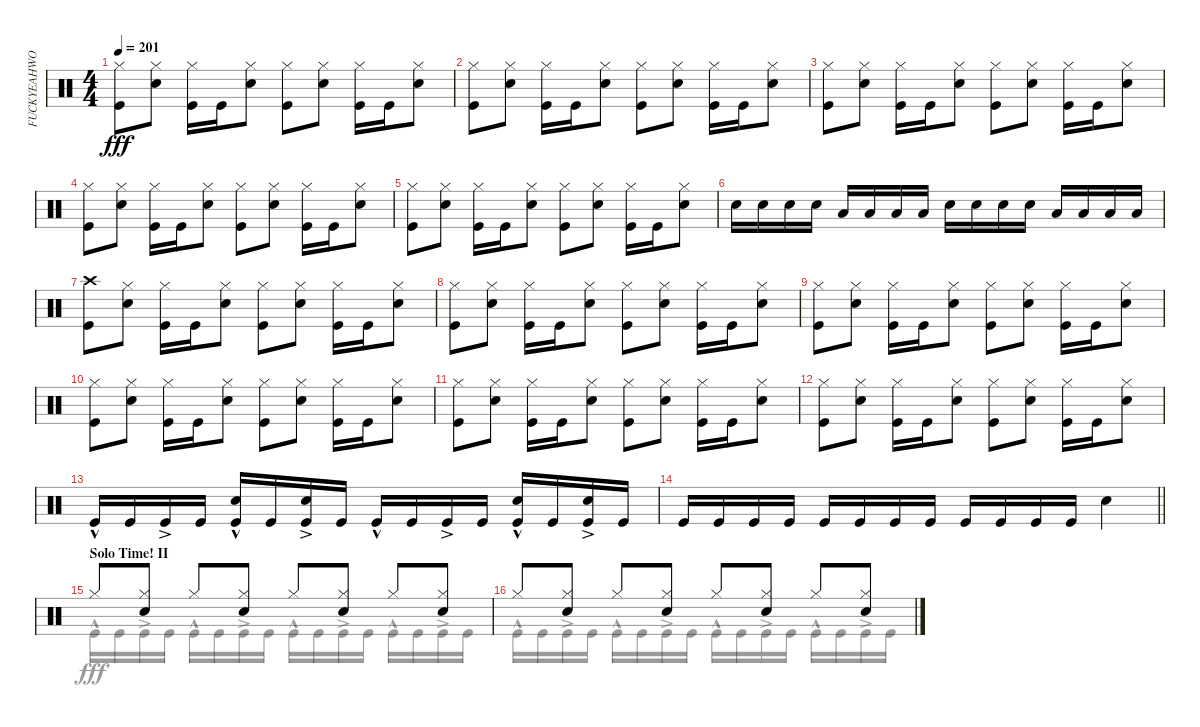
\track ("FUCKYEAHWOOTDAVEMACKINTOSH(Percussion)" "FUCKYEAHWO") {instrument percussion}
\staff {score}
\articulation defaults
\voice
\ts (4 4)
\tempo 201
\clef neutral
\ks c
("Kick (hit)" "Hi-Hat (closed)").8{dy fff} ("Snare (hit) 2" "Hi-Hat (closed)").8 ("Kick (hit)" "Hi-Hat (closed)").16 "Kick (hit)".16 ("Snare (hit) 2" "Hi-Hat (closed)").8 ("Kick (hit)" "Hi-Hat (closed)").8 ("Snare (hit) 2" "Hi-Hat (closed)").8 ("Kick (hit)" "Hi-Hat (closed)").16 "Kick (hit)".16 ("Snare (hit) 2" "Hi-Hat (closed)").8 |
("Kick (hit)" "Hi-Hat (closed)").8 ("Snare (hit) 2" "Hi-Hat (closed)").8 ("Kick (hit)" "Hi-Hat (closed)").16 "Kick (hit)".16 ("Snare (hit) 2" "Hi-Hat (closed)").8 ("Kick (hit)" "Hi-Hat (closed)").8 ("Snare (hit) 2" "Hi-Hat (closed)").8 ("Kick (hit)" "Hi-Hat (closed)").16 "Kick (hit)".16 ("Snare (hit) 2" "Hi-Hat (closed)").8 |
("Kick (hit)" "Hi-Hat (closed)").8 ("Snare (hit) 2" "Hi-Hat (closed)").8 ("Kick (hit)" "Hi-Hat (closed)").16 "Kick (hit)".16 ("Snare (hit) 2" "Hi-Hat (closed)").8 ("Kick (hit)" "Hi-Hat (closed)").8 ("Snare (hit) 2" "Hi-Hat (closed)").8 ("Kick (hit)" "Hi-Hat (closed)").16 "Kick (hit)".16 ("Snare (hit) 2" "Hi-Hat (closed)").8 |
("Kick (hit)" "Hi-Hat (closed)").8 ("Snare (hit) 2" "Hi-Hat (closed)").8 ("Kick (hit)" "Hi-Hat (closed)").16 "Kick (hit)".16 ("Snare (hit) 2" "Hi-Hat (closed)").8 ("Kick (hit)" "Hi-Hat (closed)").8 ("Snare (hit) 2" "Hi-Hat (closed)").8 ("Kick (hit)" "Hi-Hat (closed)").16 "Kick (hit)".16 ("Snare (hit) 2" "Hi-Hat (closed)").8 |
("Kick (hit)" "Hi-Hat (closed)").8 ("Snare (hit) 2" "Hi-Hat (closed)").8 ("Kick (hit)" "Hi-Hat (closed)").16 "Kick (hit)".16 ("Snare (hit) 2" "Hi-Hat (closed)").8 ("Kick (hit)" "Hi-Hat (closed)").8 ("Snare (hit) 2" "Hi-Hat (closed)").8 ("Kick (hit)" "Hi-Hat (closed)").16 "Kick (hit)".16 ("Snare (hit) 2" "Hi-Hat (closed)").8 |
"Snare (hit) 2".16 "Snare (hit) 2".16 "Snare (hit) 2".16 "Snare (hit) 2".16 "Low Tom (hit)".16 "Low Tom (hit)".16 "Low Tom (hit)".16 "Low Tom (hit)".16 "Snare (hit) 2".16 "Snare (hit) 2".16 "Snare (hit) 2".16 "Snare (hit) 2".16 "Low Tom (hit)".16 "Low Tom (hit)".16 "Low Tom (hit)".16 "Low Tom (hit)".16 |
("Kick (hit)" "Crash high (hit)").8 ("Snare (hit) 2" "Hi-Hat (closed)").8 ("Kick (hit)" "Hi-Hat (closed)").16 "Kick (hit)".16 ("Snare (hit) 2" "Hi-Hat (closed)").8 ("Kick (hit)" "Hi-Hat (closed)").8 ("Snare (hit) 2" "Hi-Hat (closed)").8 ("Kick (hit)" "Hi-Hat (closed)").16 "Kick (hit)".16 ("Snare (hit) 2" "Hi-Hat (closed)").8 |
("Kick (hit)" "Hi-Hat (closed)").8 ("Snare (hit) 2" "Hi-Hat (closed)").8 ("Kick (hit)" "Hi-Hat (closed)").16 "Kick (hit)".16 ("Snare (hit) 2" "Hi-Hat (closed)").8 ("Kick (hit)" "Hi-Hat (closed)").8 ("Snare (hit) 2" "Hi-Hat (closed)").8 ("Kick (hit)" "Hi-Hat (closed)").16 "Kick (hit)".16 ("Snare (hit) 2" "Hi-Hat (closed)").8 |
("Kick (hit)" "Hi-Hat (closed)").8 ("Snare (hit) 2" "Hi-Hat (closed)").8 ("Kick (hit)" "Hi-Hat (closed)").16 "Kick (hit)".16 ("Snare (hit) 2" "Hi-Hat (closed)").8 ("Kick (hit)" "Hi-Hat (closed)").8 ("Snare (hit) 2" "Hi-Hat (closed)").8 ("Kick (hit)" "Hi-Hat (closed)").16 "Kick (hit)".16 ("Snare (hit) 2" "Hi-Hat (closed)").8 |
("Kick (hit)" "Hi-Hat (closed)").8 ("Snare (hit) 2" "Hi-Hat (closed)").8 ("Kick (hit)" "Hi-Hat (closed)").16 "Kick (hit)".16 ("Snare (hit) 2" "Hi-Hat (closed)").8 ("Kick (hit)" "Hi-Hat (closed)").8 ("Snare (hit) 2" "Hi-Hat (closed)").8 ("Kick (hit)" "Hi-Hat (closed)").16 "Kick (hit)".16 ("Snare (hit) 2" "Hi-Hat (closed)").8 |
("Kick (hit)" "Hi-Hat (closed)").8 ("Snare (hit) 2" "Hi-Hat (closed)").8 ("Kick (hit)" "Hi-Hat (closed)").16 "Kick (hit)".16 ("Snare (hit) 2" "Hi-Hat (closed)").8 ("Kick (hit)" "Hi-Hat (closed)").8 ("Snare (hit) 2" "Hi-Hat (closed)").8 ("Kick (hit)" "Hi-Hat (closed)").16 "Kick (hit)".16 ("Snare (hit) 2" "Hi-Hat (closed)").8 |
("Kick (hit)" "Hi-Hat (closed)").8 ("Snare (hit) 2" "Hi-Hat (closed)").8 ("Kick (hit)" "Hi-Hat (closed)").16 "Kick (hit)".16 ("Snare (hit) 2" "Hi-Hat (closed)").8 ("Kick (hit)" "Hi-Hat (closed)").8 ("Snare (hit) 2" "Hi-Hat (closed)").8 ("Kick (hit)" "Hi-Hat (closed)").16 "Kick (hit)".16 ("Snare (hit) 2" "Hi-Hat (closed)").8 |
"Kick (hit)"{hac}.16 "Kick (hit)".16 "Kick (hit)"{ac}.16 "Kick (hit)".16 ("Kick (hit)"{hac} "Snare (hit) 2").16 "Kick (hit)".16 ("Kick (hit)"{ac} "Snare (hit) 2").16 "Kick (hit)".16 "Kick (hit)"{hac}.16 "Kick (hit)".16 "Kick (hit)"{ac}.16 "Kick (hit)".16 ("Kick (hit)"{hac} "Snare (hit) 2").16 "Kick (hit)".16 ("Kick (hit)"{ac} "Snare (hit) 2").16 "Kick (hit)".16 |
\barLineRight lightlight "Kick (hit)".16 "Kick (hit)".16 "Kick (hit)".16 "Kick (hit)".16 "Kick (hit)".16 "Kick (hit)".16 "Kick (hit)".16 "Kick (hit)".16 "Kick (hit)".16 "Kick (hit)".16 "Kick (hit)".16 "Kick (hit)".16 "Snare (hit) 2".4
|
\section ("" "Solo Time! II")
"Hi-Hat (closed)".8 ("Hi-Hat (closed)" "Snare (hit) 2").8 "Hi-Hat (closed)".8 ("Hi-Hat (closed)" "Snare (hit) 2").8 "Hi-Hat (closed)".8 ("Hi-Hat (closed)" "Snare (hit) 2").8 "Hi-Hat (closed)".8 ("Hi-Hat (closed)" "Snare (hit) 2").8 |
"Hi-Hat (closed)".8 ("Hi-Hat (closed)" "Snare (hit) 2").8 "Hi-Hat (closed)".8 ("Hi-Hat (closed)" "Snare (hit) 2").8 "Hi-Hat (closed)".8 ("Hi-Hat (closed)" "Snare (hit) 2").8 "Hi-Hat (closed)".8 ("Hi-Hat (closed)" "Snare (hit) 2").8
\voice
\clef neutral
\ottava regular
\simile none
\ks c
|
|
|
|
|
|
|
|
|
|
|
|
|
\barLineRight lightlight
|
"Kick (hit)"{hac}.16 "Kick (hit)".16 "Kick (hit)"{ac}.16 "Kick (hit)".16 "Kick (hit)"{hac}.16 "Kick (hit)".16 "Kick (hit)"{ac}.16 "Kick (hit)".16 "Kick (hit)"{hac}.16 "Kick (hit)".16 "Kick (hit)"{ac}.16 "Kick (hit)".16 "Kick (hit)"{hac}.16 "Kick (hit)".16 "Kick (hit)"{ac}.16 "Kick (hit)".16 |
"Kick (hit)"{hac}.16 "Kick (hit)".16 "Kick (hit)"{ac}.16 "Kick (hit)".16 "Kick (hit)"{hac}.16 "Kick (hit)".16 "Kick (hit)"{ac}.16 "Kick (hit)".16 "Kick (hit)"{hac}.16 "Kick (hit)".16 "Kick (hit)"{ac}.16 "Kick (hit)".16 "Kick (hit)"{hac}.16 "Kick (hit)".16 "Kick (hit)"{ac}.16 "Kick (hit)".16
